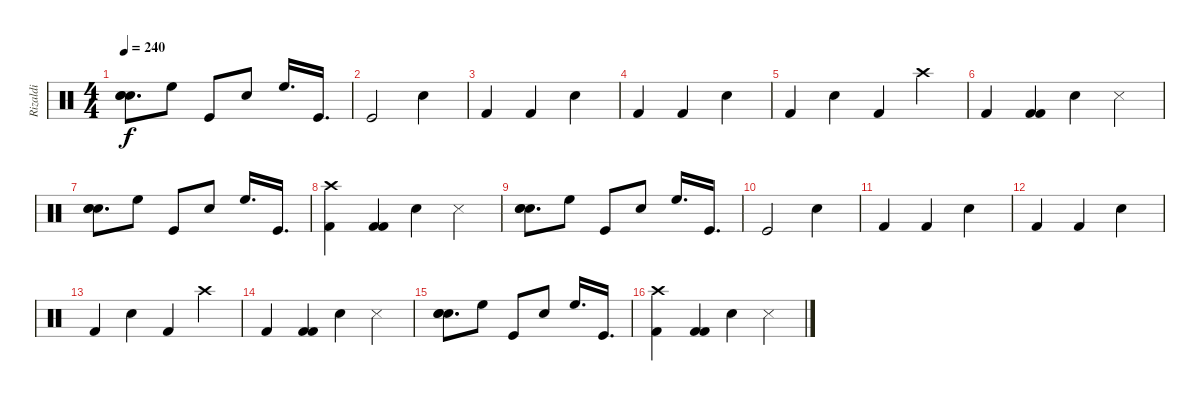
\track ("Rizaldi" "Rizaldi") {instrument percussion}
\staff {score}
\articulation defaults
\ts (4 4)
\tempo 240
\clef neutral
\ks c
("Electric Snare (hit)" "Snare (hit) 2" "Snare (hit) 2").8{d dy f} "High Floor Tom (hit)".8 "Kick (hit)".8 "Snare (hit) 2".8 "High Floor Tom (hit)".16{d} "Kick (hit)".16{d} |
"Kick (hit)".2 "Snare (hit) 2".4 |
"Kick (hit) 2".4 "Kick (hit) 2".4 "Snare (hit) 2".4 |
"Kick (hit) 2".4 "Kick (hit) 2".4 "Snare (hit) 2".4 |
"Kick (hit) 2".4 "Snare (hit) 2".4 "Kick (hit) 2".4 "Crash high (hit)".4 |
"Kick (hit) 2".4 ("Kick (hit) 2" "Kick (hit) 2").4 "Snare (hit) 2".4 "Snare (side stick) 3".4 |
("Electric Snare (hit)" "Snare (hit) 2" "Snare (hit) 2").8{d} "High Floor Tom (hit)".8 "Kick (hit)".8 "Snare (hit) 2".8 "High Floor Tom (hit)".16{d} "Kick (hit)".16{d} |
("Kick (hit) 2" "Crash high (hit)").4 ("Kick (hit) 2" "Kick (hit) 2").4 "Snare (hit) 2".4 "Snare (side stick) 3".4 |
("Electric Snare (hit)" "Snare (hit) 2" "Snare (hit) 2").8{d} "High Floor Tom (hit)".8 "Kick (hit)".8 "Snare (hit) 2".8 "High Floor Tom (hit)".16{d} "Kick (hit)".16{d} |
"Kick (hit)".2 "Snare (hit) 2".4 |
"Kick (hit) 2".4 "Kick (hit) 2".4 "Snare (hit) 2".4 |
"Kick (hit) 2".4 "Kick (hit) 2".4 "Snare (hit) 2".4 |
"Kick (hit) 2".4 "Snare (hit) 2".4 "Kick (hit) 2".4 "Crash high (hit)".4 |
"Kick (hit) 2".4 ("Kick (hit) 2" "Kick (hit) 2").4 "Snare (hit) 2".4 "Snare (side stick) 3".4 |
("Electric Snare (hit)" "Snare (hit) 2" "Snare (hit) 2").8{d} "High Floor Tom (hit)".8 "Kick (hit)".8 "Snare (hit) 2".8 "High Floor Tom (hit)".16{d} "Kick (hit)".16{d} |
("Kick (hit) 2" "Crash high (hit)").4 ("Kick (hit) 2" "Kick (hit) 2").4 "Snare (hit) 2".4 "Snare (side stick) 3".4
